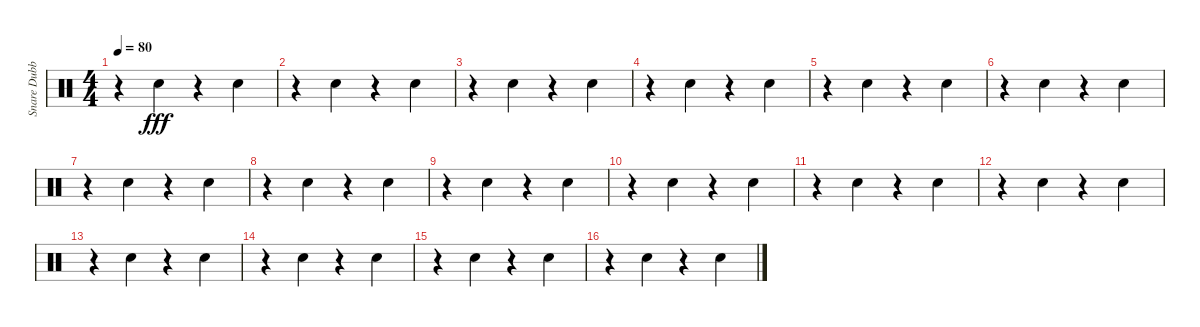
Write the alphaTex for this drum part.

\track ("Snare Dubbing (Ringo Starr)" "Snare Dubb") {instrument percussion}
\staff {score}
\articulation defaults
\ts (4 4)
\tempo 80
\clef neutral
\ks c
r.4{dy fff} "Electric Snare (hit)".4 r.4 "Electric Snare (hit)".4 |
r.4 "Electric Snare (hit)".4 r.4 "Electric Snare (hit)".4 |
r.4 "Electric Snare (hit)".4 r.4 "Electric Snare (hit)".4 |
r.4 "Electric Snare (hit)".4 r.4 "Electric Snare (hit)".4 |
r.4 "Electric Snare (hit)".4 r.4 "Electric Snare (hit)".4 |
r.4 "Electric Snare (hit)".4 r.4 "Electric Snare (hit)".4 |
r.4 "Electric Snare (hit)".4 r.4 "Electric Snare (hit)".4 |
r.4 "Electric Snare (hit)".4 r.4 "Electric Snare (hit)".4 |
r.4 "Electric Snare (hit)".4 r.4 "Electric Snare (hit)".4 |
r.4 "Electric Snare (hit)".4 r.4 "Electric Snare (hit)".4 |
r.4 "Electric Snare (hit)".4 r.4 "Electric Snare (hit)".4 |
r.4 "Electric Snare (hit)".4 r.4 "Electric Snare (hit)".4 |
r.4 "Electric Snare (hit)".4 r.4 "Electric Snare (hit)".4 |
r.4 "Electric Snare (hit)".4 r.4 "Electric Snare (hit)".4 |
r.4 "Electric Snare (hit)".4 r.4 "Electric Snare (hit)".4 |
r.4 "Electric Snare (hit)".4 r.4 "Electric Snare (hit)".4
